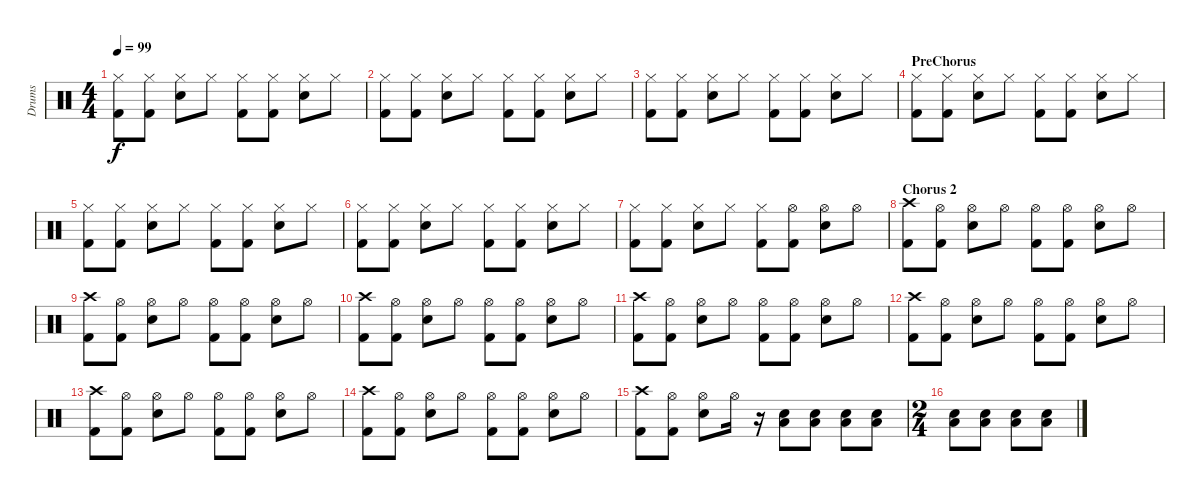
\track ("Drums " "Drums ") {instrument percussion}
\staff {score}
\articulation defaults
\ts (4 4)
\tempo 99
\clef neutral
\ks c
("Hi-Hat (closed)" "Kick (hit) 2").8{dy f} ("Hi-Hat (closed)" "Kick (hit) 2").8 ("Hi-Hat (closed)" "Snare (hit) 2").8 "Hi-Hat (closed)".8 ("Hi-Hat (closed)" "Kick (hit) 2").8 ("Hi-Hat (closed)" "Kick (hit) 2").8 ("Hi-Hat (closed)" "Snare (hit) 2").8 "Hi-Hat (closed)".8 |
("Hi-Hat (closed)" "Kick (hit) 2").8 ("Hi-Hat (closed)" "Kick (hit) 2").8 ("Hi-Hat (closed)" "Snare (hit) 2").8 "Hi-Hat (closed)".8 ("Hi-Hat (closed)" "Kick (hit) 2").8 ("Hi-Hat (closed)" "Kick (hit) 2").8 ("Hi-Hat (closed)" "Snare (hit) 2").8 "Hi-Hat (closed)".8 |
("Hi-Hat (closed)" "Kick (hit) 2").8 ("Hi-Hat (closed)" "Kick (hit) 2").8 ("Hi-Hat (closed)" "Snare (hit) 2").8 "Hi-Hat (closed)".8 ("Hi-Hat (closed)" "Kick (hit) 2").8 ("Hi-Hat (closed)" "Kick (hit) 2").8 ("Hi-Hat (closed)" "Snare (hit) 2").8 "Hi-Hat (closed)".8 |
\section ("" "PreChorus")
("Hi-Hat (closed)" "Kick (hit) 2").8 ("Hi-Hat (closed)" "Kick (hit) 2").8 ("Hi-Hat (closed)" "Snare (hit) 2").8 "Hi-Hat (closed)".8 ("Hi-Hat (closed)" "Kick (hit) 2").8 ("Hi-Hat (closed)" "Kick (hit) 2").8 ("Hi-Hat (closed)" "Snare (hit) 2").8 "Hi-Hat (closed)".8 |
("Hi-Hat (closed)" "Kick (hit) 2").8 ("Hi-Hat (closed)" "Kick (hit) 2").8 ("Hi-Hat (closed)" "Snare (hit) 2").8 "Hi-Hat (closed)".8 ("Hi-Hat (closed)" "Kick (hit) 2").8 ("Hi-Hat (closed)" "Kick (hit) 2").8 ("Hi-Hat (closed)" "Snare (hit) 2").8 "Hi-Hat (closed)".8 |
("Hi-Hat (closed)" "Kick (hit) 2").8 ("Hi-Hat (closed)" "Kick (hit) 2").8 ("Hi-Hat (closed)" "Snare (hit) 2").8 "Hi-Hat (closed)".8 ("Hi-Hat (closed)" "Kick (hit) 2").8 ("Hi-Hat (closed)" "Kick (hit) 2").8 ("Hi-Hat (closed)" "Snare (hit) 2").8 "Hi-Hat (closed)".8 |
("Hi-Hat (closed)" "Kick (hit) 2").8 ("Hi-Hat (closed)" "Kick (hit) 2").8 ("Hi-Hat (closed)" "Snare (hit) 2").8 "Hi-Hat (closed)".8 ("Hi-Hat (closed)" "Kick (hit) 2").8 ("Hi-Hat (open)" "Kick (hit) 2").8 ("Hi-Hat (open)" "Snare (hit) 2").8 "Hi-Hat (open)".8 |
\section ("" "Chorus 2")
("Crash high (hit)" "Kick (hit) 2").8 ("Hi-Hat (open)" "Kick (hit) 2").8 ("Hi-Hat (open)" "Snare (hit) 2").8 "Hi-Hat (open)".8 ("Hi-Hat (open)" "Kick (hit) 2").8 ("Hi-Hat (open)" "Kick (hit) 2").8 ("Hi-Hat (open)" "Snare (hit) 2").8 "Hi-Hat (open)".8 |
("Crash high (hit)" "Kick (hit) 2").8 ("Hi-Hat (open)" "Kick (hit) 2").8 ("Hi-Hat (open)" "Snare (hit) 2").8 "Hi-Hat (open)".8 ("Hi-Hat (open)" "Kick (hit) 2").8 ("Hi-Hat (open)" "Kick (hit) 2").8 ("Hi-Hat (open)" "Snare (hit) 2").8 "Hi-Hat (open)".8 |
("Crash high (hit)" "Kick (hit) 2").8 ("Hi-Hat (open)" "Kick (hit) 2").8 ("Hi-Hat (open)" "Snare (hit) 2").8 "Hi-Hat (open)".8 ("Hi-Hat (open)" "Kick (hit) 2").8 ("Hi-Hat (open)" "Kick (hit) 2").8 ("Hi-Hat (open)" "Snare (hit) 2").8 "Hi-Hat (open)".8 |
("Crash high (hit)" "Kick (hit) 2").8 ("Hi-Hat (open)" "Kick (hit) 2").8 ("Hi-Hat (open)" "Snare (hit) 2").8 "Hi-Hat (open)".8 ("Hi-Hat (open)" "Kick (hit) 2").8 ("Hi-Hat (open)" "Kick (hit) 2").8 ("Hi-Hat (open)" "Snare (hit) 2").8 "Hi-Hat (open)".8 |
("Crash high (hit)" "Kick (hit) 2").8 ("Hi-Hat (open)" "Kick (hit) 2").8 ("Hi-Hat (open)" "Snare (hit) 2").8 "Hi-Hat (open)".8 ("Hi-Hat (open)" "Kick (hit) 2").8 ("Hi-Hat (open)" "Kick (hit) 2").8 ("Hi-Hat (open)" "Snare (hit) 2").8 "Hi-Hat (open)".8 |
("Crash high (hit)" "Kick (hit) 2").8 ("Hi-Hat (open)" "Kick (hit) 2").8 ("Hi-Hat (open)" "Snare (hit) 2").8 "Hi-Hat (open)".8 ("Hi-Hat (open)" "Kick (hit) 2").8 ("Hi-Hat (open)" "Kick (hit) 2").8 ("Hi-Hat (open)" "Snare (hit) 2").8 "Hi-Hat (open)".8 |
("Crash high (hit)" "Kick (hit) 2").8 ("Hi-Hat (open)" "Kick (hit) 2").8 ("Hi-Hat (open)" "Snare (hit) 2").8 "Hi-Hat (open)".8 ("Hi-Hat (open)" "Kick (hit) 2").8 ("Hi-Hat (open)" "Kick (hit) 2").8 ("Hi-Hat (open)" "Snare (hit) 2").8 "Hi-Hat (open)".8 |
("Crash high (hit)" "Kick (hit) 2").8 ("Hi-Hat (open)" "Kick (hit) 2").8 ("Hi-Hat (open)" "Snare (hit) 2").8 "Hi-Hat (open)".16 r.16{volume 10} ("Low Tom (hit)" "Snare (hit) 2").8{volume 13} ("Low Tom (hit)" "Snare (hit) 2").8 ("Low Tom (hit)" "Snare (hit) 2").8 ("Low Tom (hit)" "Snare (hit) 2").8 |
\ts (2 4)
("Low Tom (hit)" "Snare (hit) 2").8 ("Low Tom (hit)" "Snare (hit) 2").8 ("Low Tom (hit)" "Snare (hit) 2").8 ("Low Tom (hit)" "Snare (hit) 2").8
